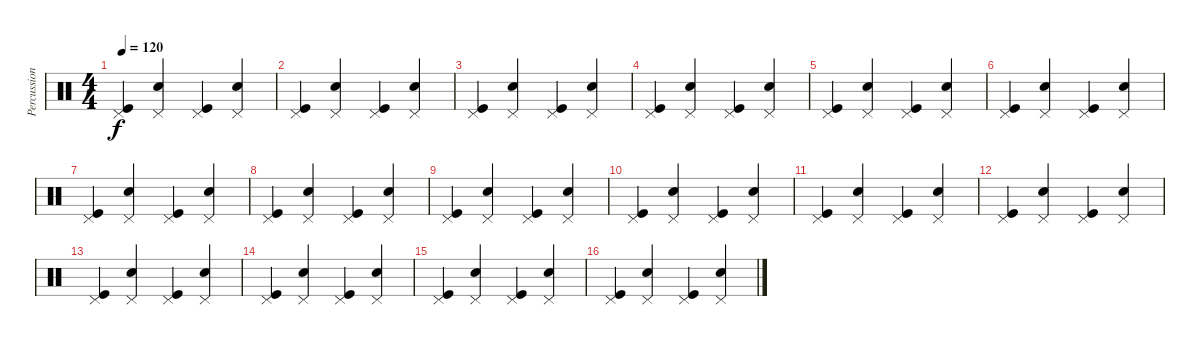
\track ("Percussion" "Percussion") {instrument percussion}
\staff {score}
\articulation defaults
\ts (4 4)
\tempo 120
\clef neutral
\ks c
("Kick (hit)" "Pedal Hi-Hat (hit)").4{dy f} ("Snare (hit) 2" "Pedal Hi-Hat (hit)").4 ("Kick (hit)" "Pedal Hi-Hat (hit)").4 ("Snare (hit) 2" "Pedal Hi-Hat (hit)").4 |
("Kick (hit)" "Pedal Hi-Hat (hit)").4 ("Snare (hit) 2" "Pedal Hi-Hat (hit)").4 ("Kick (hit)" "Pedal Hi-Hat (hit)").4 ("Snare (hit) 2" "Pedal Hi-Hat (hit)").4 |
("Kick (hit)" "Pedal Hi-Hat (hit)").4 ("Snare (hit) 2" "Pedal Hi-Hat (hit)").4 ("Kick (hit)" "Pedal Hi-Hat (hit)").4 ("Snare (hit) 2" "Pedal Hi-Hat (hit)").4 |
("Kick (hit)" "Pedal Hi-Hat (hit)").4 ("Snare (hit) 2" "Pedal Hi-Hat (hit)").4 ("Kick (hit)" "Pedal Hi-Hat (hit)").4 ("Snare (hit) 2" "Pedal Hi-Hat (hit)").4 |
("Kick (hit)" "Pedal Hi-Hat (hit)").4 ("Snare (hit) 2" "Pedal Hi-Hat (hit)").4 ("Kick (hit)" "Pedal Hi-Hat (hit)").4 ("Snare (hit) 2" "Pedal Hi-Hat (hit)").4 |
("Kick (hit)" "Pedal Hi-Hat (hit)").4 ("Snare (hit) 2" "Pedal Hi-Hat (hit)").4 ("Kick (hit)" "Pedal Hi-Hat (hit)").4 ("Snare (hit) 2" "Pedal Hi-Hat (hit)").4 |
("Kick (hit)" "Pedal Hi-Hat (hit)").4 ("Snare (hit) 2" "Pedal Hi-Hat (hit)").4 ("Kick (hit)" "Pedal Hi-Hat (hit)").4 ("Snare (hit) 2" "Pedal Hi-Hat (hit)").4 |
("Kick (hit)" "Pedal Hi-Hat (hit)").4 ("Snare (hit) 2" "Pedal Hi-Hat (hit)").4 ("Kick (hit)" "Pedal Hi-Hat (hit)").4 ("Snare (hit) 2" "Pedal Hi-Hat (hit)").4 |
("Kick (hit)" "Pedal Hi-Hat (hit)").4 ("Snare (hit) 2" "Pedal Hi-Hat (hit)").4 ("Kick (hit)" "Pedal Hi-Hat (hit)").4 ("Snare (hit) 2" "Pedal Hi-Hat (hit)").4 |
("Kick (hit)" "Pedal Hi-Hat (hit)").4 ("Snare (hit) 2" "Pedal Hi-Hat (hit)").4 ("Kick (hit)" "Pedal Hi-Hat (hit)").4 ("Snare (hit) 2" "Pedal Hi-Hat (hit)").4 |
("Kick (hit)" "Pedal Hi-Hat (hit)").4 ("Snare (hit) 2" "Pedal Hi-Hat (hit)").4 ("Kick (hit)" "Pedal Hi-Hat (hit)").4 ("Snare (hit) 2" "Pedal Hi-Hat (hit)").4 |
("Kick (hit)" "Pedal Hi-Hat (hit)").4 ("Snare (hit) 2" "Pedal Hi-Hat (hit)").4 ("Kick (hit)" "Pedal Hi-Hat (hit)").4 ("Snare (hit) 2" "Pedal Hi-Hat (hit)").4 |
("Kick (hit)" "Pedal Hi-Hat (hit)").4 ("Snare (hit) 2" "Pedal Hi-Hat (hit)").4 ("Kick (hit)" "Pedal Hi-Hat (hit)").4 ("Snare (hit) 2" "Pedal Hi-Hat (hit)").4 |
("Kick (hit)" "Pedal Hi-Hat (hit)").4 ("Snare (hit) 2" "Pedal Hi-Hat (hit)").4 ("Kick (hit)" "Pedal Hi-Hat (hit)").4 ("Snare (hit) 2" "Pedal Hi-Hat (hit)").4 |
("Kick (hit)" "Pedal Hi-Hat (hit)").4 ("Snare (hit) 2" "Pedal Hi-Hat (hit)").4 ("Kick (hit)" "Pedal Hi-Hat (hit)").4 ("Snare (hit) 2" "Pedal Hi-Hat (hit)").4 |
("Kick (hit)" "Pedal Hi-Hat (hit)").4 ("Snare (hit) 2" "Pedal Hi-Hat (hit)").4 ("Kick (hit)" "Pedal Hi-Hat (hit)").4 ("Snare (hit) 2" "Pedal Hi-Hat (hit)").4
